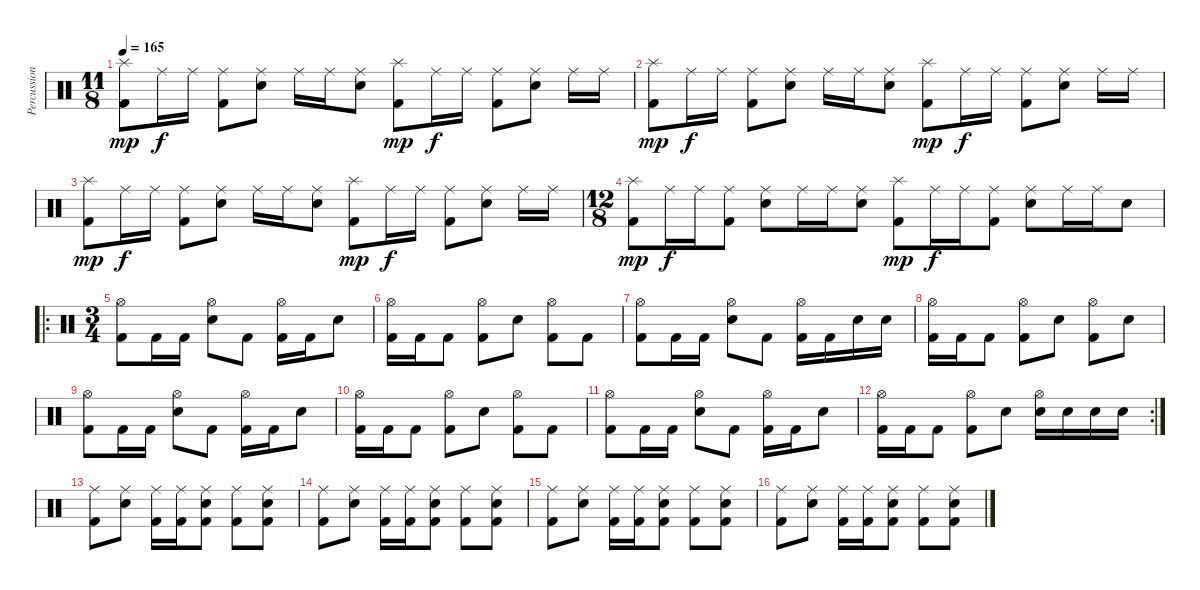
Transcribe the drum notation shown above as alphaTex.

\track ("Percussion" "Percussion") {instrument percussion}
\staff {score}
\articulation defaults
\ts (11 8)
\tempo 165
\clef neutral
\ks c
("Splash (hit)" "Kick (hit) 2").8{dy mp} "Ride (middle)".16{dy f} "Ride (middle)".16 ("Ride (middle)" "Kick (hit) 2").8 ("Ride (middle)" "Electric Snare (hit)").8 "Ride (middle)".16 "Ride (middle)".16 ("Ride (middle)" "Electric Snare (hit)").8 ("Splash (hit)" "Kick (hit) 2").8{dy mp} "Ride (middle)".16{dy f} "Ride (middle)".16 ("Ride (middle)" "Kick (hit) 2").8 ("Ride (middle)" "Electric Snare (hit)").8 "Ride (middle)".16 "Ride (middle)".16 |
("Splash (hit)" "Kick (hit) 2").8{dy mp} "Ride (middle)".16{dy f} "Ride (middle)".16 ("Ride (middle)" "Kick (hit) 2").8 ("Ride (middle)" "Electric Snare (hit)").8 "Ride (middle)".16 "Ride (middle)".16 ("Ride (middle)" "Electric Snare (hit)").8 ("Splash (hit)" "Kick (hit) 2").8{dy mp} "Ride (middle)".16{dy f} "Ride (middle)".16 ("Ride (middle)" "Kick (hit) 2").8 ("Ride (middle)" "Electric Snare (hit)").8 "Ride (middle)".16 "Ride (middle)".16 |
("Splash (hit)" "Kick (hit) 2").8{dy mp} "Ride (middle)".16{dy f} "Ride (middle)".16 ("Ride (middle)" "Kick (hit) 2").8 ("Ride (middle)" "Electric Snare (hit)").8 "Ride (middle)".16 "Ride (middle)".16 ("Ride (middle)" "Electric Snare (hit)").8 ("Splash (hit)" "Kick (hit) 2").8{dy mp} "Ride (middle)".16{dy f} "Ride (middle)".16 ("Ride (middle)" "Kick (hit) 2").8 ("Ride (middle)" "Electric Snare (hit)").8 "Ride (middle)".16 "Ride (middle)".16 |
\ts (12 8)
("Splash (hit)" "Kick (hit) 2").8{dy mp} "Ride (middle)".16{dy f} "Ride (middle)".16 ("Ride (middle)" "Kick (hit) 2").8 ("Ride (middle)" "Electric Snare (hit)").8 "Ride (middle)".16 "Ride (middle)".16 ("Ride (middle)" "Electric Snare (hit)").8 ("Splash (hit)" "Kick (hit) 2").8{dy mp} "Ride (middle)".16{dy f} "Ride (middle)".16 ("Ride (middle)" "Kick (hit) 2").8 ("Ride (middle)" "Electric Snare (hit)").8 "Ride (middle)".16 "Ride (middle)".16 "Electric Snare (hit)".8 |
\ro
\ts (3 4)
("Hi-Hat (open)" "Kick (hit) 2").8 "Kick (hit) 2".16 "Kick (hit) 2".16 ("Hi-Hat (open)" "Electric Snare (hit)").8 "Kick (hit) 2".8 ("Hi-Hat (open)" "Kick (hit) 2").16 "Kick (hit) 2".16 "Electric Snare (hit)".8 |
("Hi-Hat (open)" "Kick (hit) 2").16 "Kick (hit) 2".16 "Kick (hit) 2".8 ("Hi-Hat (open)" "Kick (hit) 2").8 "Electric Snare (hit)".8 ("Hi-Hat (open)" "Kick (hit) 2").8 "Kick (hit) 2".8 |
("Hi-Hat (open)" "Kick (hit) 2").8 "Kick (hit) 2".16 "Kick (hit) 2".16 ("Hi-Hat (open)" "Electric Snare (hit)").8 "Kick (hit) 2".8 ("Hi-Hat (open)" "Kick (hit) 2").16 "Kick (hit) 2".16 "Electric Snare (hit)".16 "Electric Snare (hit)".16 |
("Hi-Hat (open)" "Kick (hit) 2").16 "Kick (hit) 2".16 "Kick (hit) 2".8 ("Hi-Hat (open)" "Kick (hit) 2").8 "Electric Snare (hit)".8 ("Hi-Hat (open)" "Kick (hit) 2").8 "Electric Snare (hit)".8 |
("Hi-Hat (open)" "Kick (hit) 2").8 "Kick (hit) 2".16 "Kick (hit) 2".16 ("Hi-Hat (open)" "Electric Snare (hit)").8 "Kick (hit) 2".8 ("Hi-Hat (open)" "Kick (hit) 2").16 "Kick (hit) 2".16 "Electric Snare (hit)".8 |
("Hi-Hat (open)" "Kick (hit) 2").16 "Kick (hit) 2".16 "Kick (hit) 2".8 ("Hi-Hat (open)" "Kick (hit) 2").8 "Electric Snare (hit)".8 ("Hi-Hat (open)" "Kick (hit) 2").8 "Kick (hit) 2".8 |
("Hi-Hat (open)" "Kick (hit) 2").8 "Kick (hit) 2".16 "Kick (hit) 2".16 ("Hi-Hat (open)" "Electric Snare (hit)").8 "Kick (hit) 2".8 ("Hi-Hat (open)" "Kick (hit) 2").16 "Kick (hit) 2".16 "Electric Snare (hit)".8 |
\rc 2
("Hi-Hat (open)" "Kick (hit) 2").16 "Kick (hit) 2".16 "Kick (hit) 2".8 ("Hi-Hat (open)" "Kick (hit) 2").8 "Electric Snare (hit)".8 ("Hi-Hat (open)" "Electric Snare (hit)").16 "Electric Snare (hit)".16 "Electric Snare (hit)".16 "Electric Snare (hit)".16 |
("Ride (middle)" "Kick (hit) 2").8 ("Ride (middle)" "Electric Snare (hit)").8 ("Ride (middle)" "Kick (hit) 2").16 ("Ride (middle)" "Kick (hit) 2").16 ("Ride (middle)" "Electric Snare (hit)" "Kick (hit) 2").8 ("Ride (middle)" "Kick (hit) 2").8 ("Ride (middle)" "Electric Snare (hit)" "Kick (hit) 2").8 |
("Ride (middle)" "Kick (hit) 2").8 ("Ride (middle)" "Electric Snare (hit)").8 ("Ride (middle)" "Kick (hit) 2").16 ("Ride (middle)" "Kick (hit) 2").16 ("Ride (middle)" "Electric Snare (hit)" "Kick (hit) 2").8 ("Ride (middle)" "Kick (hit) 2").8 ("Ride (middle)" "Electric Snare (hit)" "Kick (hit) 2").8 |
("Ride (middle)" "Kick (hit) 2").8 ("Ride (middle)" "Electric Snare (hit)").8 ("Ride (middle)" "Kick (hit) 2").16 ("Ride (middle)" "Kick (hit) 2").16 ("Ride (middle)" "Electric Snare (hit)" "Kick (hit) 2").8 ("Ride (middle)" "Kick (hit) 2").8 ("Ride (middle)" "Electric Snare (hit)" "Kick (hit) 2").8 |
("Ride (middle)" "Kick (hit) 2").8 ("Ride (middle)" "Electric Snare (hit)").8 ("Ride (middle)" "Kick (hit) 2").16 ("Ride (middle)" "Kick (hit) 2").16 ("Ride (middle)" "Electric Snare (hit)" "Kick (hit) 2").8 ("Ride (middle)" "Kick (hit) 2").8 ("Ride (middle)" "Electric Snare (hit)" "Kick (hit) 2").8
